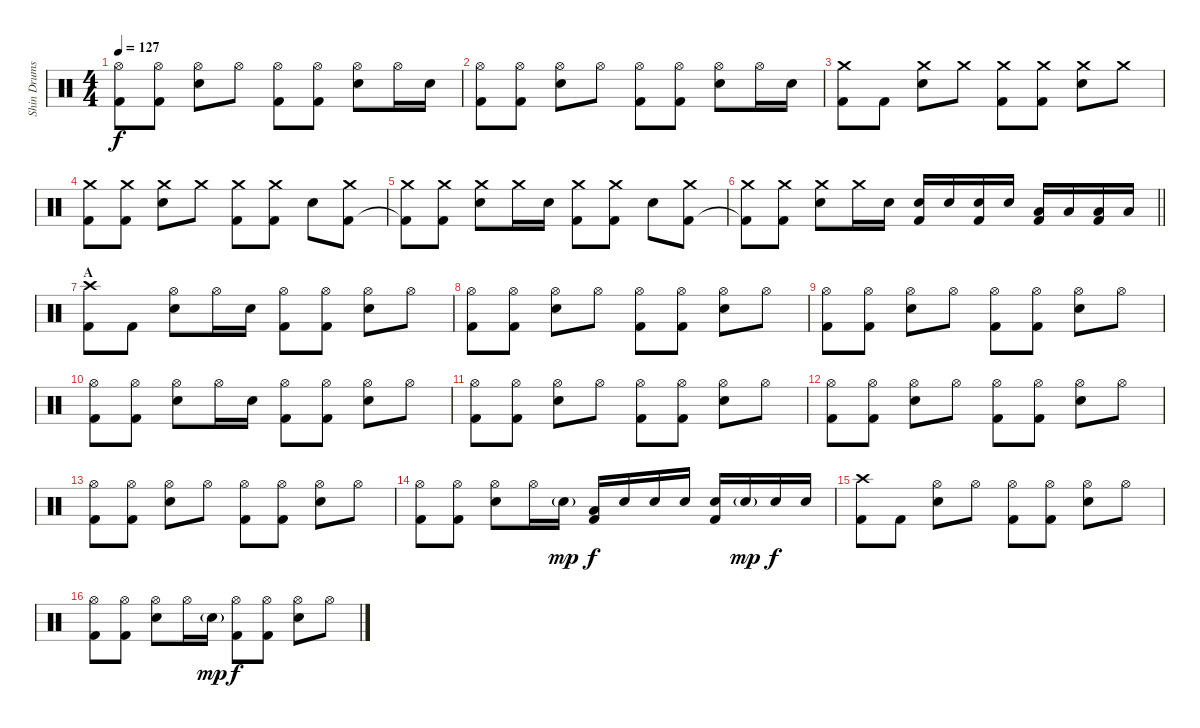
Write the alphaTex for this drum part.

\track ("Shin Drums" "Shin Drums") {instrument percussion}
\staff {score}
\articulation defaults
\ts (4 4)
\tempo 127
\clef neutral
\ks c
("Hi-Hat (open)" "Kick (hit) 2").8{dy f} ("Hi-Hat (open)" "Kick (hit) 2").8 ("Hi-Hat (open)" "Snare (hit) 2").8 "Hi-Hat (open)".8 ("Hi-Hat (open)" "Kick (hit) 2").8 ("Hi-Hat (open)" "Kick (hit) 2").8 ("Hi-Hat (open)" "Snare (hit) 2").8 "Hi-Hat (open)".16 "Snare (hit) 2".16 |
("Hi-Hat (open)" "Kick (hit) 2").8 ("Hi-Hat (open)" "Kick (hit) 2").8 ("Hi-Hat (open)" "Snare (hit) 2").8 "Hi-Hat (open)".8 ("Hi-Hat (open)" "Kick (hit) 2").8 ("Hi-Hat (open)" "Kick (hit) 2").8 ("Hi-Hat (open)" "Snare (hit) 2").8 "Hi-Hat (open)".16 "Snare (hit) 2".16 |
("Crash medium (hit)" "Kick (hit) 2").8 "Kick (hit) 2".8 ("Crash medium (hit)" "Snare (hit) 2").8 "Crash medium (hit)".8 ("Crash medium (hit)" "Kick (hit) 2").8 ("Crash medium (hit)" "Kick (hit) 2").8 ("Crash medium (hit)" "Snare (hit) 2").8 "Crash medium (hit)".8 |
("Crash medium (hit)" "Kick (hit) 2").8 ("Crash medium (hit)" "Kick (hit) 2").8 ("Crash medium (hit)" "Snare (hit) 2").8 "Crash medium (hit)".8 ("Crash medium (hit)" "Kick (hit) 2").8 ("Crash medium (hit)" "Kick (hit) 2").8 "Snare (hit) 2".8 ("Crash medium (hit)" "Kick (hit) 2").8 |
("Crash medium (hit)" "Kick (hit) 2"{t}).8 ("Crash medium (hit)" "Kick (hit) 2").8 ("Crash medium (hit)" "Snare (hit) 2").8 "Crash medium (hit)".16 "Snare (hit) 2".16 ("Crash medium (hit)" "Kick (hit) 2").8 ("Crash medium (hit)" "Kick (hit) 2").8 "Snare (hit) 2".8 ("Crash medium (hit)" "Kick (hit) 2").8 |
\barLineRight lightlight
("Crash medium (hit)" "Kick (hit) 2"{t}).8 ("Crash medium (hit)" "Kick (hit) 2").8 ("Crash medium (hit)" "Snare (hit) 2").8 "Crash medium (hit)".16 "Snare (hit) 2".16 ("Snare (hit) 2" "Kick (hit) 2").16 "Snare (hit) 2".16 ("Snare (hit) 2" "Kick (hit) 2").16 "Snare (hit) 2".16 ("Low Tom (hit)" "Kick (hit) 2").16 "Low Tom (hit)".16 ("Low Tom (hit)" "Kick (hit) 2").16 "Low Tom (hit)".16 |
\section ("" "A")
("Crash high (hit)" "Kick (hit) 2").8 "Kick (hit) 2".8 ("Hi-Hat (open)" "Snare (hit) 2").8 "Hi-Hat (open)".16 "Snare (hit) 2".16 ("Hi-Hat (open)" "Kick (hit) 2").8 ("Hi-Hat (open)" "Kick (hit) 2").8 ("Hi-Hat (open)" "Snare (hit) 2").8 "Hi-Hat (open)".8 |
("Hi-Hat (open)" "Kick (hit) 2").8 ("Hi-Hat (open)" "Kick (hit) 2").8 ("Hi-Hat (open)" "Snare (hit) 2").8 "Hi-Hat (open)".8 ("Hi-Hat (open)" "Kick (hit) 2").8 ("Hi-Hat (open)" "Kick (hit) 2").8 ("Hi-Hat (open)" "Snare (hit) 2").8 "Hi-Hat (open)".8 |
("Hi-Hat (open)" "Kick (hit) 2").8 ("Hi-Hat (open)" "Kick (hit) 2").8 ("Hi-Hat (open)" "Snare (hit) 2").8 "Hi-Hat (open)".8 ("Hi-Hat (open)" "Kick (hit) 2").8 ("Hi-Hat (open)" "Kick (hit) 2").8 ("Hi-Hat (open)" "Snare (hit) 2").8 "Hi-Hat (open)".8 |
("Hi-Hat (open)" "Kick (hit) 2").8 ("Hi-Hat (open)" "Kick (hit) 2").8 ("Hi-Hat (open)" "Snare (hit) 2").8 "Hi-Hat (open)".16 "Snare (hit) 2".16 ("Hi-Hat (open)" "Kick (hit) 2").8 ("Hi-Hat (open)" "Kick (hit) 2").8 ("Hi-Hat (open)" "Snare (hit) 2").8 "Hi-Hat (open)".8 |
("Hi-Hat (open)" "Kick (hit) 2").8 ("Hi-Hat (open)" "Kick (hit) 2").8 ("Hi-Hat (open)" "Snare (hit) 2").8 "Hi-Hat (open)".8 ("Hi-Hat (open)" "Kick (hit) 2").8 ("Hi-Hat (open)" "Kick (hit) 2").8 ("Hi-Hat (open)" "Snare (hit) 2").8 "Hi-Hat (open)".8 |
("Hi-Hat (open)" "Kick (hit) 2").8 ("Hi-Hat (open)" "Kick (hit) 2").8 ("Hi-Hat (open)" "Snare (hit) 2").8 "Hi-Hat (open)".8 ("Hi-Hat (open)" "Kick (hit) 2").8 ("Hi-Hat (open)" "Kick (hit) 2").8 ("Hi-Hat (open)" "Snare (hit) 2").8 "Hi-Hat (open)".8 |
("Hi-Hat (open)" "Kick (hit) 2").8 ("Hi-Hat (open)" "Kick (hit) 2").8 ("Hi-Hat (open)" "Snare (hit) 2").8 "Hi-Hat (open)".8 ("Hi-Hat (open)" "Kick (hit) 2").8 ("Hi-Hat (open)" "Kick (hit) 2").8 ("Hi-Hat (open)" "Snare (hit) 2").8 "Hi-Hat (open)".8 |
("Hi-Hat (open)" "Kick (hit) 2").8 ("Hi-Hat (open)" "Kick (hit) 2").8 ("Hi-Hat (open)" "Snare (hit) 2").8 "Hi-Hat (open)".16 "Snare (hit) 2"{g}.16{dy mp} ("Low Tom (hit)" "Kick (hit) 2").16{dy f} "Snare (hit) 2".16 "Snare (hit) 2".16 "Snare (hit) 2".16 ("Snare (hit) 2" "Kick (hit) 2").16 "Snare (hit) 2"{g}.16{dy mp} "Snare (hit) 2".16{dy f} "Snare (hit) 2".16 |
("Crash high (hit)" "Kick (hit) 2").8 "Kick (hit) 2".8 ("Hi-Hat (open)" "Snare (hit) 2").8 "Hi-Hat (open)".8 ("Hi-Hat (open)" "Kick (hit) 2").8 ("Hi-Hat (open)" "Kick (hit) 2").8 ("Hi-Hat (open)" "Snare (hit) 2").8 "Hi-Hat (open)".8 |
("Hi-Hat (open)" "Kick (hit) 2").8 ("Hi-Hat (open)" "Kick (hit) 2").8 ("Hi-Hat (open)" "Snare (hit) 2").8 "Hi-Hat (open)".16 "Snare (hit) 2"{g}.16{dy mp} ("Hi-Hat (open)" "Kick (hit) 2").8{dy f} ("Hi-Hat (open)" "Kick (hit) 2").8 ("Hi-Hat (open)" "Snare (hit) 2").8 "Hi-Hat (open)".8
